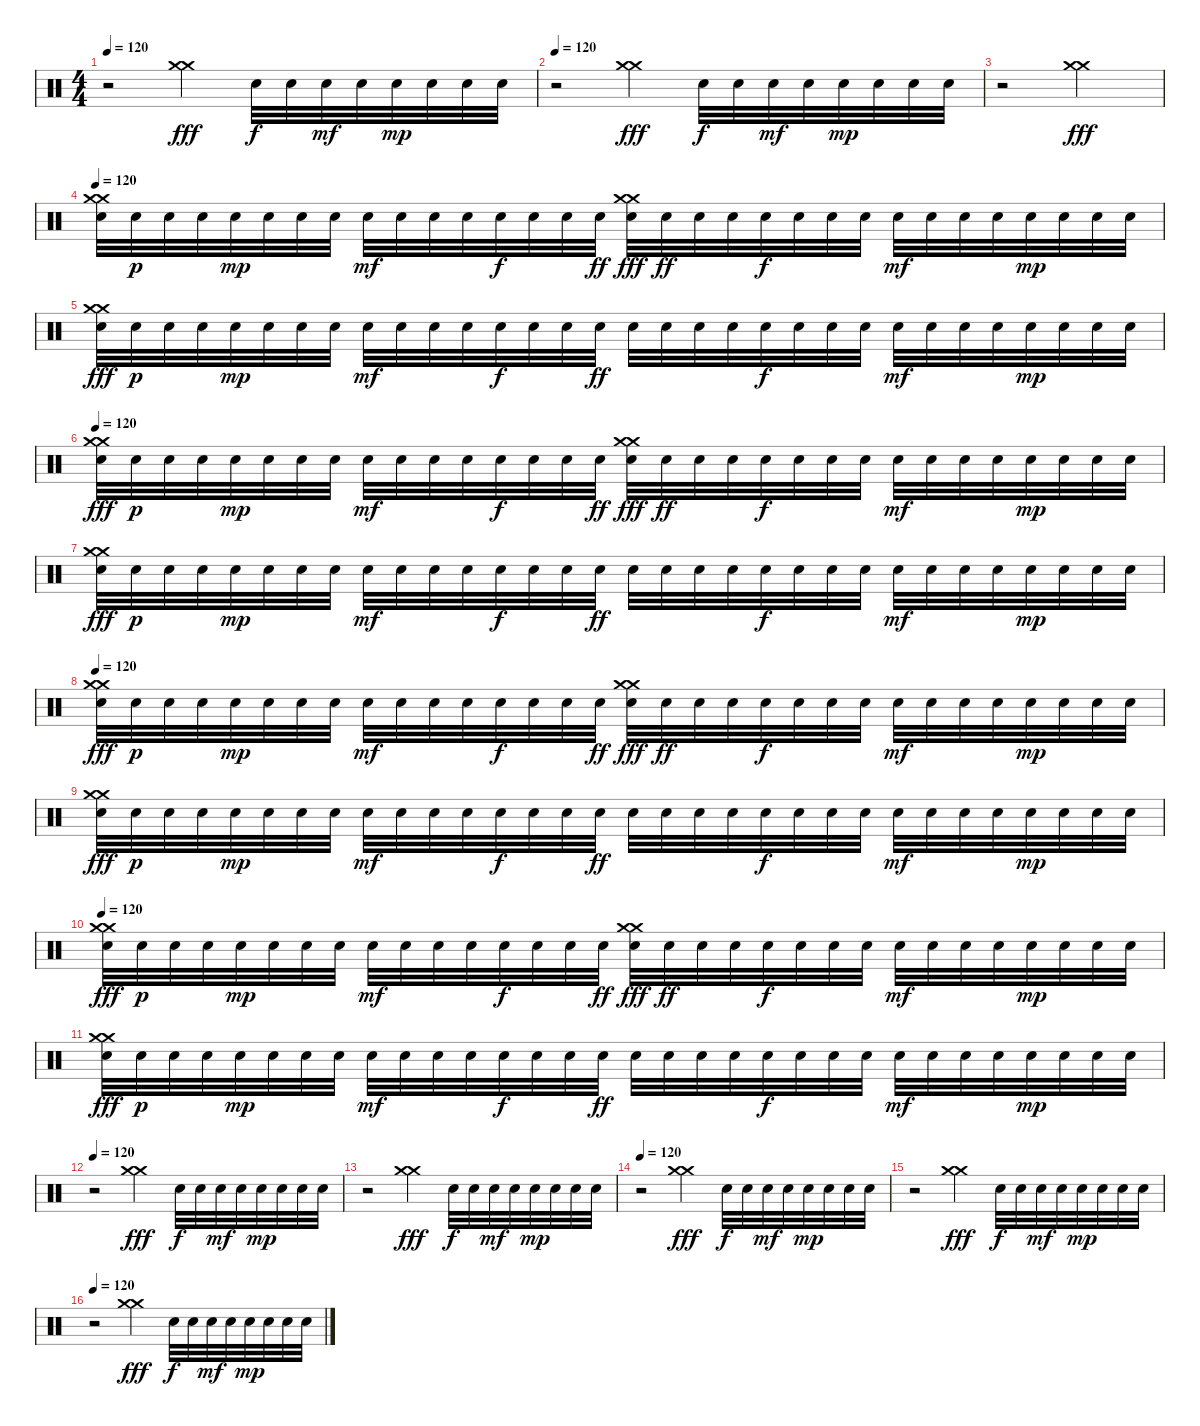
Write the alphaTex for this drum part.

\track "" {instrument percussion}
\staff {score}
\articulation defaults
\ts (4 4)
\tempo 120
\clef neutral
\ks c
r.2{dy mp} ("Crash medium (hit)" "Crash medium (hit)").4{dy fff} "Snare (hit) 2".32{dy f} "Snare (hit) 2".32 "Snare (hit) 2".32{dy mf} "Snare (hit) 2".32 "Snare (hit) 2".32{dy mp} "Snare (hit) 2".32 "Snare (hit) 2".32 "Snare (hit) 2".32 |
\tempo 120
r.2 ("Crash medium (hit)" "Crash medium (hit)").4{dy fff} "Snare (hit) 2".32{dy f} "Snare (hit) 2".32 "Snare (hit) 2".32{dy mf} "Snare (hit) 2".32 "Snare (hit) 2".32{dy mp} "Snare (hit) 2".32 "Snare (hit) 2".32 "Snare (hit) 2".32 |
r.2 ("Crash medium (hit)" "Crash medium (hit)").2{dy fff} |
\tempo 120
("Snare (hit) 2" "Crash medium (hit)" "Crash medium (hit)").32 "Snare (hit) 2".32{dy p} "Snare (hit) 2".32 "Snare (hit) 2".32 "Snare (hit) 2".32{dy mp} "Snare (hit) 2".32 "Snare (hit) 2".32 "Snare (hit) 2".32 "Snare (hit) 2".32{dy mf} "Snare (hit) 2".32 "Snare (hit) 2".32 "Snare (hit) 2".32 "Snare (hit) 2".32{dy f} "Snare (hit) 2".32 "Snare (hit) 2".32 "Snare (hit) 2".32{dy ff} ("Snare (hit) 2" "Crash medium (hit)" "Crash medium (hit)").32{dy fff} "Snare (hit) 2".32{dy ff} "Snare (hit) 2".32 "Snare (hit) 2".32 "Snare (hit) 2".32{dy f} "Snare (hit) 2".32 "Snare (hit) 2".32 "Snare (hit) 2".32 "Snare (hit) 2".32{dy mf} "Snare (hit) 2".32 "Snare (hit) 2".32 "Snare (hit) 2".32 "Snare (hit) 2".32{dy mp} "Snare (hit) 2".32 "Snare (hit) 2".32 "Snare (hit) 2".32 |
("Snare (hit) 2" "Crash medium (hit)" "Crash medium (hit)").32{dy fff} "Snare (hit) 2".32{dy p} "Snare (hit) 2".32 "Snare (hit) 2".32 "Snare (hit) 2".32{dy mp} "Snare (hit) 2".32 "Snare (hit) 2".32 "Snare (hit) 2".32 "Snare (hit) 2".32{dy mf} "Snare (hit) 2".32 "Snare (hit) 2".32 "Snare (hit) 2".32 "Snare (hit) 2".32{dy f} "Snare (hit) 2".32 "Snare (hit) 2".32 "Snare (hit) 2".32{dy ff} "Snare (hit) 2".32 "Snare (hit) 2".32 "Snare (hit) 2".32 "Snare (hit) 2".32 "Snare (hit) 2".32{dy f} "Snare (hit) 2".32 "Snare (hit) 2".32 "Snare (hit) 2".32 "Snare (hit) 2".32{dy mf} "Snare (hit) 2".32 "Snare (hit) 2".32 "Snare (hit) 2".32 "Snare (hit) 2".32{dy mp} "Snare (hit) 2".32 "Snare (hit) 2".32 "Snare (hit) 2".32 |
\tempo 120
("Snare (hit) 2" "Crash medium (hit)" "Crash medium (hit)").32{dy fff} "Snare (hit) 2".32{dy p} "Snare (hit) 2".32 "Snare (hit) 2".32 "Snare (hit) 2".32{dy mp} "Snare (hit) 2".32 "Snare (hit) 2".32 "Snare (hit) 2".32 "Snare (hit) 2".32{dy mf} "Snare (hit) 2".32 "Snare (hit) 2".32 "Snare (hit) 2".32 "Snare (hit) 2".32{dy f} "Snare (hit) 2".32 "Snare (hit) 2".32 "Snare (hit) 2".32{dy ff} ("Snare (hit) 2" "Crash medium (hit)" "Crash medium (hit)").32{dy fff} "Snare (hit) 2".32{dy ff} "Snare (hit) 2".32 "Snare (hit) 2".32 "Snare (hit) 2".32{dy f} "Snare (hit) 2".32 "Snare (hit) 2".32 "Snare (hit) 2".32 "Snare (hit) 2".32{dy mf} "Snare (hit) 2".32 "Snare (hit) 2".32 "Snare (hit) 2".32 "Snare (hit) 2".32{dy mp} "Snare (hit) 2".32 "Snare (hit) 2".32 "Snare (hit) 2".32 |
("Snare (hit) 2" "Crash medium (hit)" "Crash medium (hit)").32{dy fff} "Snare (hit) 2".32{dy p} "Snare (hit) 2".32 "Snare (hit) 2".32 "Snare (hit) 2".32{dy mp} "Snare (hit) 2".32 "Snare (hit) 2".32 "Snare (hit) 2".32 "Snare (hit) 2".32{dy mf} "Snare (hit) 2".32 "Snare (hit) 2".32 "Snare (hit) 2".32 "Snare (hit) 2".32{dy f} "Snare (hit) 2".32 "Snare (hit) 2".32 "Snare (hit) 2".32{dy ff} "Snare (hit) 2".32 "Snare (hit) 2".32 "Snare (hit) 2".32 "Snare (hit) 2".32 "Snare (hit) 2".32{dy f} "Snare (hit) 2".32 "Snare (hit) 2".32 "Snare (hit) 2".32 "Snare (hit) 2".32{dy mf} "Snare (hit) 2".32 "Snare (hit) 2".32 "Snare (hit) 2".32 "Snare (hit) 2".32{dy mp} "Snare (hit) 2".32 "Snare (hit) 2".32 "Snare (hit) 2".32 |
\tempo 120
("Snare (hit) 2" "Crash medium (hit)" "Crash medium (hit)").32{dy fff} "Snare (hit) 2".32{dy p} "Snare (hit) 2".32 "Snare (hit) 2".32 "Snare (hit) 2".32{dy mp} "Snare (hit) 2".32 "Snare (hit) 2".32 "Snare (hit) 2".32 "Snare (hit) 2".32{dy mf} "Snare (hit) 2".32 "Snare (hit) 2".32 "Snare (hit) 2".32 "Snare (hit) 2".32{dy f} "Snare (hit) 2".32 "Snare (hit) 2".32 "Snare (hit) 2".32{dy ff} ("Snare (hit) 2" "Crash medium (hit)" "Crash medium (hit)").32{dy fff} "Snare (hit) 2".32{dy ff} "Snare (hit) 2".32 "Snare (hit) 2".32 "Snare (hit) 2".32{dy f} "Snare (hit) 2".32 "Snare (hit) 2".32 "Snare (hit) 2".32 "Snare (hit) 2".32{dy mf} "Snare (hit) 2".32 "Snare (hit) 2".32 "Snare (hit) 2".32 "Snare (hit) 2".32{dy mp} "Snare (hit) 2".32 "Snare (hit) 2".32 "Snare (hit) 2".32 |
("Snare (hit) 2" "Crash medium (hit)" "Crash medium (hit)").32{dy fff} "Snare (hit) 2".32{dy p} "Snare (hit) 2".32 "Snare (hit) 2".32 "Snare (hit) 2".32{dy mp} "Snare (hit) 2".32 "Snare (hit) 2".32 "Snare (hit) 2".32 "Snare (hit) 2".32{dy mf} "Snare (hit) 2".32 "Snare (hit) 2".32 "Snare (hit) 2".32 "Snare (hit) 2".32{dy f} "Snare (hit) 2".32 "Snare (hit) 2".32 "Snare (hit) 2".32{dy ff} "Snare (hit) 2".32 "Snare (hit) 2".32 "Snare (hit) 2".32 "Snare (hit) 2".32 "Snare (hit) 2".32{dy f} "Snare (hit) 2".32 "Snare (hit) 2".32 "Snare (hit) 2".32 "Snare (hit) 2".32{dy mf} "Snare (hit) 2".32 "Snare (hit) 2".32 "Snare (hit) 2".32 "Snare (hit) 2".32{dy mp} "Snare (hit) 2".32 "Snare (hit) 2".32 "Snare (hit) 2".32 |
\tempo 120
("Snare (hit) 2" "Crash medium (hit)" "Crash medium (hit)").32{dy fff} "Snare (hit) 2".32{dy p} "Snare (hit) 2".32 "Snare (hit) 2".32 "Snare (hit) 2".32{dy mp} "Snare (hit) 2".32 "Snare (hit) 2".32 "Snare (hit) 2".32 "Snare (hit) 2".32{dy mf} "Snare (hit) 2".32 "Snare (hit) 2".32 "Snare (hit) 2".32 "Snare (hit) 2".32{dy f} "Snare (hit) 2".32 "Snare (hit) 2".32 "Snare (hit) 2".32{dy ff} ("Snare (hit) 2" "Crash medium (hit)" "Crash medium (hit)").32{dy fff} "Snare (hit) 2".32{dy ff} "Snare (hit) 2".32 "Snare (hit) 2".32 "Snare (hit) 2".32{dy f} "Snare (hit) 2".32 "Snare (hit) 2".32 "Snare (hit) 2".32 "Snare (hit) 2".32{dy mf} "Snare (hit) 2".32 "Snare (hit) 2".32 "Snare (hit) 2".32 "Snare (hit) 2".32{dy mp} "Snare (hit) 2".32 "Snare (hit) 2".32 "Snare (hit) 2".32 |
("Snare (hit) 2" "Crash medium (hit)" "Crash medium (hit)").32{dy fff} "Snare (hit) 2".32{dy p} "Snare (hit) 2".32 "Snare (hit) 2".32 "Snare (hit) 2".32{dy mp} "Snare (hit) 2".32 "Snare (hit) 2".32 "Snare (hit) 2".32 "Snare (hit) 2".32{dy mf} "Snare (hit) 2".32 "Snare (hit) 2".32 "Snare (hit) 2".32 "Snare (hit) 2".32{dy f} "Snare (hit) 2".32 "Snare (hit) 2".32 "Snare (hit) 2".32{dy ff} "Snare (hit) 2".32 "Snare (hit) 2".32 "Snare (hit) 2".32 "Snare (hit) 2".32 "Snare (hit) 2".32{dy f} "Snare (hit) 2".32 "Snare (hit) 2".32 "Snare (hit) 2".32 "Snare (hit) 2".32{dy mf} "Snare (hit) 2".32 "Snare (hit) 2".32 "Snare (hit) 2".32 "Snare (hit) 2".32{dy mp} "Snare (hit) 2".32 "Snare (hit) 2".32 "Snare (hit) 2".32 |
\tempo 120
r.2 ("Crash medium (hit)" "Crash medium (hit)").4{dy fff} "Snare (hit) 2".32{dy f} "Snare (hit) 2".32 "Snare (hit) 2".32{dy mf} "Snare (hit) 2".32 "Snare (hit) 2".32{dy mp} "Snare (hit) 2".32 "Snare (hit) 2".32 "Snare (hit) 2".32 |
r.2 ("Crash medium (hit)" "Crash medium (hit)").4{dy fff} "Snare (hit) 2".32{dy f} "Snare (hit) 2".32 "Snare (hit) 2".32{dy mf} "Snare (hit) 2".32 "Snare (hit) 2".32{dy mp} "Snare (hit) 2".32 "Snare (hit) 2".32 "Snare (hit) 2".32 |
\tempo 120
r.2 ("Crash medium (hit)" "Crash medium (hit)").4{dy fff} "Snare (hit) 2".32{dy f} "Snare (hit) 2".32 "Snare (hit) 2".32{dy mf} "Snare (hit) 2".32 "Snare (hit) 2".32{dy mp} "Snare (hit) 2".32 "Snare (hit) 2".32 "Snare (hit) 2".32 |
r.2 ("Crash medium (hit)" "Crash medium (hit)").4{dy fff} "Snare (hit) 2".32{dy f} "Snare (hit) 2".32 "Snare (hit) 2".32{dy mf} "Snare (hit) 2".32 "Snare (hit) 2".32{dy mp} "Snare (hit) 2".32 "Snare (hit) 2".32 "Snare (hit) 2".32 |
\tempo 120
r.2 ("Crash medium (hit)" "Crash medium (hit)").4{dy fff} "Snare (hit) 2".32{dy f} "Snare (hit) 2".32 "Snare (hit) 2".32{dy mf} "Snare (hit) 2".32 "Snare (hit) 2".32{dy mp} "Snare (hit) 2".32 "Snare (hit) 2".32 "Snare (hit) 2".32
